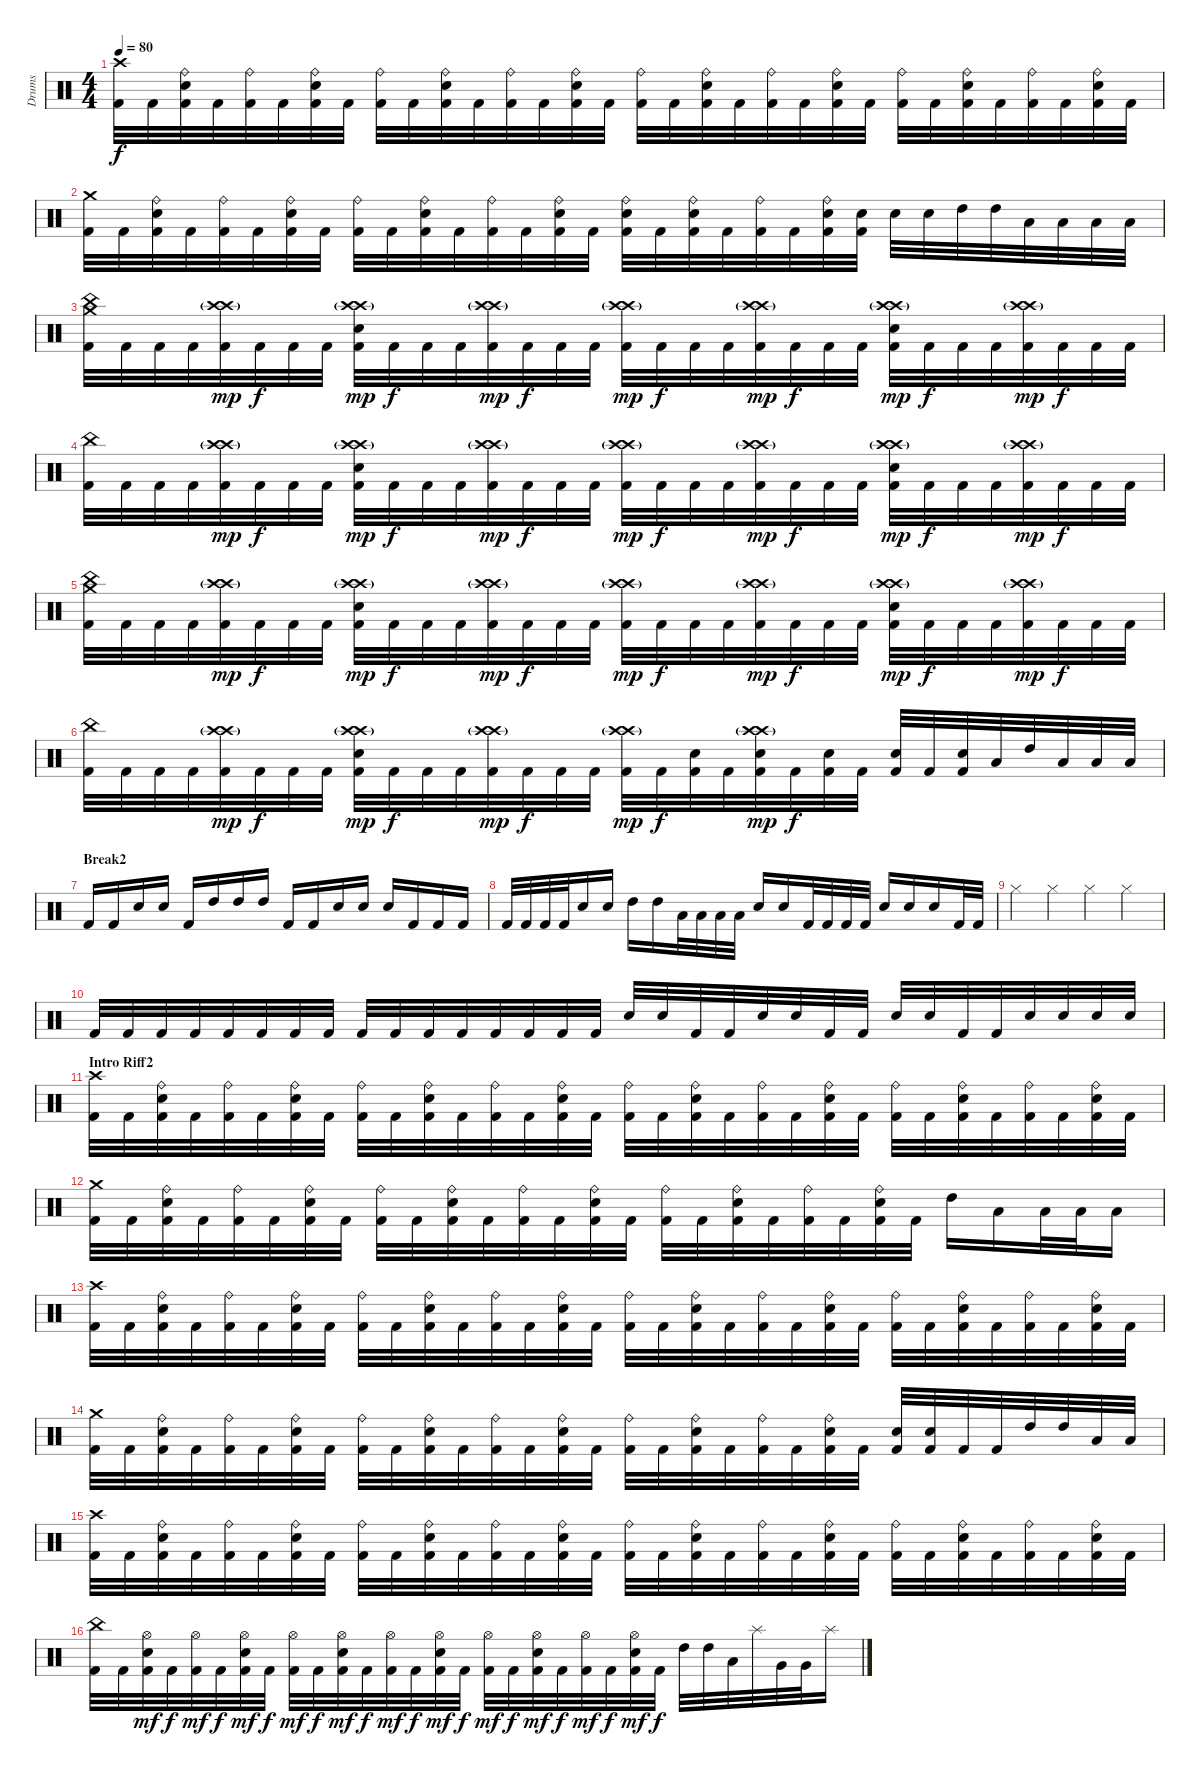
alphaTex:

\track ("Drums" "Drums") {instrument percussion}
\staff {score}
\articulation defaults
\ts (4 4)
\tempo 80
\clef neutral
\ks c
("Crash high (hit)" "Kick (hit) 2").32{dy f} "Kick (hit) 2".32 ("Ride (bell)" "Electric Snare (hit)" "Kick (hit) 2").32 "Kick (hit) 2".32 ("Ride (bell)" "Kick (hit) 2").32 "Kick (hit) 2".32 ("Ride (bell)" "Electric Snare (hit)" "Kick (hit) 2").32 "Kick (hit) 2".32 ("Ride (bell)" "Kick (hit) 2").32 "Kick (hit) 2".32 ("Ride (bell)" "Electric Snare (hit)" "Kick (hit) 2").32 "Kick (hit) 2".32 ("Ride (bell)" "Kick (hit) 2").32 "Kick (hit) 2".32 ("Ride (bell)" "Electric Snare (hit)" "Kick (hit) 2").32 "Kick (hit) 2".32 ("Ride (bell)" "Kick (hit) 2").32 "Kick (hit) 2".32 ("Ride (bell)" "Electric Snare (hit)" "Kick (hit) 2").32 "Kick (hit) 2".32 ("Ride (bell)" "Kick (hit) 2").32 "Kick (hit) 2".32 ("Ride (bell)" "Electric Snare (hit)" "Kick (hit) 2").32 "Kick (hit) 2".32 ("Ride (bell)" "Kick (hit) 2").32 "Kick (hit) 2".32 ("Ride (bell)" "Electric Snare (hit)" "Kick (hit) 2").32 "Kick (hit) 2".32 ("Ride (bell)" "Kick (hit) 2").32 "Kick (hit) 2".32 ("Ride (bell)" "Electric Snare (hit)" "Kick (hit) 2").32 "Kick (hit) 2".32 |
("Crash medium (hit)" "Kick (hit) 2").32 "Kick (hit) 2".32 ("Ride (bell)" "Electric Snare (hit)" "Kick (hit) 2").32 "Kick (hit) 2".32 ("Ride (bell)" "Kick (hit) 2").32 "Kick (hit) 2".32 ("Ride (bell)" "Electric Snare (hit)" "Kick (hit) 2").32 "Kick (hit) 2".32 ("Ride (bell)" "Kick (hit) 2").32 "Kick (hit) 2".32 ("Ride (bell)" "Electric Snare (hit)" "Kick (hit) 2").32 "Kick (hit) 2".32 ("Ride (bell)" "Kick (hit) 2").32 "Kick (hit) 2".32 ("Ride (bell)" "Electric Snare (hit)" "Kick (hit) 2").32 "Kick (hit) 2".32 ("Ride (bell)" "Electric Snare (hit)" "Kick (hit) 2").32 "Kick (hit) 2".32 ("Ride (bell)" "Electric Snare (hit)" "Kick (hit) 2").32 "Kick (hit) 2".32 ("Ride (bell)" "Kick (hit) 2").32 "Kick (hit) 2".32 ("Ride (bell)" "Electric Snare (hit)" "Kick (hit) 2").32 ("Electric Snare (hit)" "Kick (hit) 2").32 "Electric Snare (hit)".32 "Electric Snare (hit)".32 "High Tom (hit)".32 "High Tom (hit)".32 "Low Floor Tom (hit)".32 "Low Floor Tom (hit)".32 "Low Floor Tom (hit)".32 "Low Floor Tom (hit)".32 |
("China (hit)" "Crash medium (hit)" "Kick (hit) 2").32 "Kick (hit) 2".32 "Kick (hit) 2".32 "Kick (hit) 2".32 ("Crash high (hit)"{g} "Crash high (hit)"{g} "Kick (hit) 2").32{dy mp} "Kick (hit) 2".32{dy f} "Kick (hit) 2".32 "Kick (hit) 2".32 ("Crash high (hit)"{g} "Crash high (hit)"{g} "Electric Snare (hit)" "Kick (hit) 2").32{dy mp} "Kick (hit) 2".32{dy f} "Kick (hit) 2".32 "Kick (hit) 2".32 ("Crash high (hit)"{g} "Crash high (hit)"{g} "Kick (hit) 2").32{dy mp} "Kick (hit) 2".32{dy f} "Kick (hit) 2".32 "Kick (hit) 2".32 ("Crash high (hit)"{g} "Crash high (hit)"{g} "Kick (hit) 2").32{dy mp} "Kick (hit) 2".32{dy f} "Kick (hit) 2".32 "Kick (hit) 2".32 ("Crash high (hit)"{g} "Crash high (hit)"{g} "Kick (hit) 2").32{dy mp} "Kick (hit) 2".32{dy f} "Kick (hit) 2".32 "Kick (hit) 2".32 ("Crash high (hit)"{g} "Crash high (hit)"{g} "Electric Snare (hit)" "Kick (hit) 2").32{dy mp} "Kick (hit) 2".32{dy f} "Kick (hit) 2".32 "Kick (hit) 2".32 ("Crash high (hit)"{g} "Crash high (hit)"{g} "Kick (hit) 2").32{dy mp} "Kick (hit) 2".32{dy f} "Kick (hit) 2".32 "Kick (hit) 2".32 |
("China (hit)" "Kick (hit) 2").32 "Kick (hit) 2".32 "Kick (hit) 2".32 "Kick (hit) 2".32 ("Crash high (hit)"{g} "Crash high (hit)"{g} "Kick (hit) 2").32{dy mp} "Kick (hit) 2".32{dy f} "Kick (hit) 2".32 "Kick (hit) 2".32 ("Crash high (hit)"{g} "Crash high (hit)"{g} "Electric Snare (hit)" "Kick (hit) 2").32{dy mp} "Kick (hit) 2".32{dy f} "Kick (hit) 2".32 "Kick (hit) 2".32 ("Crash high (hit)"{g} "Crash high (hit)"{g} "Kick (hit) 2").32{dy mp} "Kick (hit) 2".32{dy f} "Kick (hit) 2".32 "Kick (hit) 2".32 ("Crash high (hit)"{g} "Crash high (hit)"{g} "Kick (hit) 2").32{dy mp} "Kick (hit) 2".32{dy f} "Kick (hit) 2".32 "Kick (hit) 2".32 ("Crash high (hit)"{g} "Crash high (hit)"{g} "Kick (hit) 2").32{dy mp} "Kick (hit) 2".32{dy f} "Kick (hit) 2".32 "Kick (hit) 2".32 ("Crash high (hit)"{g} "Crash high (hit)"{g} "Electric Snare (hit)" "Kick (hit) 2").32{dy mp} "Kick (hit) 2".32{dy f} "Kick (hit) 2".32 "Kick (hit) 2".32 ("Crash high (hit)"{g} "Crash high (hit)"{g} "Kick (hit) 2").32{dy mp} "Kick (hit) 2".32{dy f} "Kick (hit) 2".32 "Kick (hit) 2".32 |
("China (hit)" "Crash medium (hit)" "Kick (hit) 2").32 "Kick (hit) 2".32 "Kick (hit) 2".32 "Kick (hit) 2".32 ("Crash high (hit)"{g} "Crash high (hit)"{g} "Kick (hit) 2").32{dy mp} "Kick (hit) 2".32{dy f} "Kick (hit) 2".32 "Kick (hit) 2".32 ("Crash high (hit)"{g} "Crash high (hit)"{g} "Electric Snare (hit)" "Kick (hit) 2").32{dy mp} "Kick (hit) 2".32{dy f} "Kick (hit) 2".32 "Kick (hit) 2".32 ("Crash high (hit)"{g} "Crash high (hit)"{g} "Kick (hit) 2").32{dy mp} "Kick (hit) 2".32{dy f} "Kick (hit) 2".32 "Kick (hit) 2".32 ("Crash high (hit)"{g} "Crash high (hit)"{g} "Kick (hit) 2").32{dy mp} "Kick (hit) 2".32{dy f} "Kick (hit) 2".32 "Kick (hit) 2".32 ("Crash high (hit)"{g} "Crash high (hit)"{g} "Kick (hit) 2").32{dy mp} "Kick (hit) 2".32{dy f} "Kick (hit) 2".32 "Kick (hit) 2".32 ("Crash high (hit)"{g} "Crash high (hit)"{g} "Electric Snare (hit)" "Kick (hit) 2").32{dy mp} "Kick (hit) 2".32{dy f} "Kick (hit) 2".32 "Kick (hit) 2".32 ("Crash high (hit)"{g} "Crash high (hit)"{g} "Kick (hit) 2").32{dy mp} "Kick (hit) 2".32{dy f} "Kick (hit) 2".32 "Kick (hit) 2".32 |
("China (hit)" "Kick (hit) 2").32 "Kick (hit) 2".32 "Kick (hit) 2".32 "Kick (hit) 2".32 ("Crash high (hit)"{g} "Crash high (hit)"{g} "Kick (hit) 2").32{dy mp} "Kick (hit) 2".32{dy f} "Kick (hit) 2".32 "Kick (hit) 2".32 ("Crash high (hit)"{g} "Crash high (hit)"{g} "Electric Snare (hit)" "Kick (hit) 2").32{dy mp} "Kick (hit) 2".32{dy f} "Kick (hit) 2".32 "Kick (hit) 2".32 ("Crash high (hit)"{g} "Crash high (hit)"{g} "Kick (hit) 2").32{dy mp} "Kick (hit) 2".32{dy f} "Kick (hit) 2".32 "Kick (hit) 2".32 ("Crash high (hit)"{g} "Crash high (hit)"{g} "Kick (hit) 2").32{dy mp} "Kick (hit) 2".32{dy f} ("Electric Snare (hit)" "Kick (hit) 2").32 "Kick (hit) 2".32 ("Crash high (hit)"{g} "Crash high (hit)"{g} "Electric Snare (hit)" "Kick (hit) 2").32{dy mp} "Kick (hit) 2".32{dy f} ("Electric Snare (hit)" "Kick (hit) 2").32 "Kick (hit) 2".32 ("Electric Snare (hit)" "Kick (hit) 2").32 "Kick (hit) 2".32 ("Electric Snare (hit)" "Kick (hit) 2").32 "Low Tom (hit)".32 "High Tom (hit)".32 "Low Floor Tom (hit)".32 "Low Floor Tom (hit)".32 "Low Floor Tom (hit)".32 |
\section ("" "Break2")
"Kick (hit) 2".16 "Kick (hit) 2".16 "Electric Snare (hit)".16 "Electric Snare (hit)".16 "Kick (hit) 2".16 "High Tom (hit)".16 "High Tom (hit)".16 "High Tom (hit)".16 "Kick (hit) 2".16 "Kick (hit) 2".16 "Electric Snare (hit)".16 "Electric Snare (hit)".16 "Electric Snare (hit)".16 "Kick (hit) 2".16 "Kick (hit) 2".16 "Kick (hit) 2".16 |
"Kick (hit) 2".32 "Kick (hit) 2".32 "Kick (hit) 2".32 "Kick (hit) 2".32 "Electric Snare (hit)".16 "Electric Snare (hit)".16 "High Tom (hit)".16 "High Tom (hit)".16 "Low Tom (hit)".32 "Low Tom (hit)".32 "Low Tom (hit)".32 "Low Tom (hit)".32 "Electric Snare (hit)".16 "Electric Snare (hit)".16 "Kick (hit) 2".32 "Kick (hit) 2".32 "Kick (hit) 2".32 "Kick (hit) 2".32 "Electric Snare (hit)".16 "Electric Snare (hit)".16 "Electric Snare (hit)".16 "Kick (hit) 2".32 "Kick (hit) 2".32 |
"Hi-Hat (closed)".4 "Hi-Hat (closed)".4 "Hi-Hat (closed)".4 "Hi-Hat (closed)".4 |
"Kick (hit) 2".32 "Kick (hit) 2".32 "Kick (hit) 2".32 "Kick (hit) 2".32 "Kick (hit) 2".32 "Kick (hit) 2".32 "Kick (hit) 2".32 "Kick (hit) 2".32 "Kick (hit) 2".32 "Kick (hit) 2".32 "Kick (hit) 2".32 "Kick (hit) 2".32 "Kick (hit) 2".32 "Kick (hit) 2".32 "Kick (hit) 2".32 "Kick (hit) 2".32 "Electric Snare (hit)".32 "Electric Snare (hit)".32 "Kick (hit) 2".32 "Kick (hit) 2".32 "Electric Snare (hit)".32 "Electric Snare (hit)".32 "Kick (hit) 2".32 "Kick (hit) 2".32 "Electric Snare (hit)".32 "Electric Snare (hit)".32 "Kick (hit) 2".32 "Kick (hit) 2".32 "Electric Snare (hit)".32 "Electric Snare (hit)".32 "Electric Snare (hit)".32 "Electric Snare (hit)".32 |
\section ("" "Intro Riff2")
("Crash high (hit)" "Kick (hit) 2").32 "Kick (hit) 2".32 ("Ride (bell)" "Electric Snare (hit)" "Kick (hit) 2").32 "Kick (hit) 2".32 ("Ride (bell)" "Kick (hit) 2").32 "Kick (hit) 2".32 ("Ride (bell)" "Electric Snare (hit)" "Kick (hit) 2").32 "Kick (hit) 2".32 ("Ride (bell)" "Kick (hit) 2").32 "Kick (hit) 2".32 ("Ride (bell)" "Electric Snare (hit)" "Kick (hit) 2").32 "Kick (hit) 2".32 ("Ride (bell)" "Kick (hit) 2").32 "Kick (hit) 2".32 ("Ride (bell)" "Electric Snare (hit)" "Kick (hit) 2").32 "Kick (hit) 2".32 ("Ride (bell)" "Kick (hit) 2").32 "Kick (hit) 2".32 ("Ride (bell)" "Electric Snare (hit)" "Kick (hit) 2").32 "Kick (hit) 2".32 ("Ride (bell)" "Kick (hit) 2").32 "Kick (hit) 2".32 ("Ride (bell)" "Electric Snare (hit)" "Kick (hit) 2").32 "Kick (hit) 2".32 ("Ride (bell)" "Kick (hit) 2").32 "Kick (hit) 2".32 ("Ride (bell)" "Electric Snare (hit)" "Kick (hit) 2").32 "Kick (hit) 2".32 ("Ride (bell)" "Kick (hit) 2").32 "Kick (hit) 2".32 ("Ride (bell)" "Electric Snare (hit)" "Kick (hit) 2").32 "Kick (hit) 2".32 |
("Crash medium (hit)" "Kick (hit) 2").32 "Kick (hit) 2".32 ("Ride (bell)" "Electric Snare (hit)" "Kick (hit) 2").32 "Kick (hit) 2".32 ("Ride (bell)" "Kick (hit) 2").32 "Kick (hit) 2".32 ("Ride (bell)" "Electric Snare (hit)" "Kick (hit) 2").32 "Kick (hit) 2".32 ("Ride (bell)" "Kick (hit) 2").32 "Kick (hit) 2".32 ("Ride (bell)" "Electric Snare (hit)" "Kick (hit) 2").32 "Kick (hit) 2".32 ("Ride (bell)" "Kick (hit) 2").32 "Kick (hit) 2".32 ("Ride (bell)" "Electric Snare (hit)" "Kick (hit) 2").32 "Kick (hit) 2".32 ("Ride (bell)" "Kick (hit) 2").32 "Kick (hit) 2".32 ("Ride (bell)" "Electric Snare (hit)" "Kick (hit) 2").32 "Kick (hit) 2".32 ("Ride (bell)" "Kick (hit) 2").32 "Kick (hit) 2".32 ("Ride (bell)" "Electric Snare (hit)" "Kick (hit) 2").32 "Kick (hit) 2".32 "High Tom (hit)".16 "Low Tom (hit)".16 "Low Tom (hit)".32 "Low Tom (hit)".32 "Low Floor Tom (hit)".16 |
("Crash high (hit)" "Kick (hit) 2").32 "Kick (hit) 2".32 ("Ride (bell)" "Electric Snare (hit)" "Kick (hit) 2").32 "Kick (hit) 2".32 ("Ride (bell)" "Kick (hit) 2").32 "Kick (hit) 2".32 ("Ride (bell)" "Electric Snare (hit)" "Kick (hit) 2").32 "Kick (hit) 2".32 ("Ride (bell)" "Kick (hit) 2").32 "Kick (hit) 2".32 ("Ride (bell)" "Electric Snare (hit)" "Kick (hit) 2").32 "Kick (hit) 2".32 ("Ride (bell)" "Kick (hit) 2").32 "Kick (hit) 2".32 ("Ride (bell)" "Electric Snare (hit)" "Kick (hit) 2").32 "Kick (hit) 2".32 ("Ride (bell)" "Kick (hit) 2").32 "Kick (hit) 2".32 ("Ride (bell)" "Electric Snare (hit)" "Kick (hit) 2").32 "Kick (hit) 2".32 ("Ride (bell)" "Kick (hit) 2").32 "Kick (hit) 2".32 ("Ride (bell)" "Electric Snare (hit)" "Kick (hit) 2").32 "Kick (hit) 2".32 ("Ride (bell)" "Kick (hit) 2").32 "Kick (hit) 2".32 ("Ride (bell)" "Electric Snare (hit)" "Kick (hit) 2").32 "Kick (hit) 2".32 ("Ride (bell)" "Kick (hit) 2").32 "Kick (hit) 2".32 ("Ride (bell)" "Electric Snare (hit)" "Kick (hit) 2").32 "Kick (hit) 2".32 |
("Crash medium (hit)" "Kick (hit) 2").32 "Kick (hit) 2".32 ("Ride (bell)" "Electric Snare (hit)" "Kick (hit) 2").32 "Kick (hit) 2".32 ("Ride (bell)" "Kick (hit) 2").32 "Kick (hit) 2".32 ("Ride (bell)" "Electric Snare (hit)" "Kick (hit) 2").32 "Kick (hit) 2".32 ("Ride (bell)" "Kick (hit) 2").32 "Kick (hit) 2".32 ("Ride (bell)" "Electric Snare (hit)" "Kick (hit) 2").32 "Kick (hit) 2".32 ("Ride (bell)" "Kick (hit) 2").32 "Kick (hit) 2".32 ("Ride (bell)" "Electric Snare (hit)" "Kick (hit) 2").32 "Kick (hit) 2".32 ("Ride (bell)" "Kick (hit) 2").32 "Kick (hit) 2".32 ("Ride (bell)" "Electric Snare (hit)" "Kick (hit) 2").32 "Kick (hit) 2".32 ("Ride (bell)" "Kick (hit) 2").32 "Kick (hit) 2".32 ("Ride (bell)" "Electric Snare (hit)" "Kick (hit) 2").32 "Kick (hit) 2".32 ("Electric Snare (hit)" "Kick (hit) 2").32 ("Electric Snare (hit)" "Kick (hit) 2").32 "Kick (hit) 2".32 "Kick (hit) 2".32 "High Tom (hit)".32 "High Tom (hit)".32 "Low Tom (hit)".32 "Low Tom (hit)".32 |
("Crash high (hit)" "Kick (hit) 2").32 "Kick (hit) 2".32 ("Ride (bell)" "Electric Snare (hit)" "Kick (hit) 2").32 "Kick (hit) 2".32 ("Ride (bell)" "Kick (hit) 2").32 "Kick (hit) 2".32 ("Ride (bell)" "Electric Snare (hit)" "Kick (hit) 2").32 "Kick (hit) 2".32 ("Ride (bell)" "Kick (hit) 2").32 "Kick (hit) 2".32 ("Ride (bell)" "Electric Snare (hit)" "Kick (hit) 2").32 "Kick (hit) 2".32 ("Ride (bell)" "Kick (hit) 2").32 "Kick (hit) 2".32 ("Ride (bell)" "Electric Snare (hit)" "Kick (hit) 2").32 "Kick (hit) 2".32 ("Ride (bell)" "Kick (hit) 2").32 "Kick (hit) 2".32 ("Ride (bell)" "Electric Snare (hit)" "Kick (hit) 2").32 "Kick (hit) 2".32 ("Ride (bell)" "Kick (hit) 2").32 "Kick (hit) 2".32 ("Ride (bell)" "Electric Snare (hit)" "Kick (hit) 2").32 "Kick (hit) 2".32 ("Ride (bell)" "Kick (hit) 2").32 "Kick (hit) 2".32 ("Ride (bell)" "Electric Snare (hit)" "Kick (hit) 2").32 "Kick (hit) 2".32 ("Ride (bell)" "Kick (hit) 2").32 "Kick (hit) 2".32 ("Ride (bell)" "Electric Snare (hit)" "Kick (hit) 2").32 "Kick (hit) 2".32 |
("China (hit)" "Kick (hit) 2").32 "Kick (hit) 2".32 ("Hi-Hat (open)" "Electric Snare (hit)" "Kick (hit) 2").32{dy mf} "Kick (hit) 2".32{dy f} ("Hi-Hat (open)" "Kick (hit) 2").32{dy mf} "Kick (hit) 2".32{dy f} ("Hi-Hat (open)" "Electric Snare (hit)" "Kick (hit) 2").32{dy mf} "Kick (hit) 2".32{dy f} ("Hi-Hat (open)" "Kick (hit) 2").32{dy mf} "Kick (hit) 2".32{dy f} ("Hi-Hat (open)" "Electric Snare (hit)" "Kick (hit) 2").32{dy mf} "Kick (hit) 2".32{dy f} ("Hi-Hat (open)" "Kick (hit) 2").32{dy mf} "Kick (hit) 2".32{dy f} ("Hi-Hat (open)" "Electric Snare (hit)" "Kick (hit) 2").32{dy mf} "Kick (hit) 2".32{dy f} ("Hi-Hat (open)" "Kick (hit) 2").32{dy mf} "Kick (hit) 2".32{dy f} ("Hi-Hat (open)" "Electric Snare (hit)" "Kick (hit) 2").32{dy mf} "Kick (hit) 2".32{dy f} ("Hi-Hat (open)" "Kick (hit) 2").32{dy mf} "Kick (hit) 2".32{dy f} ("Hi-Hat (open)" "Electric Snare (hit)" "Kick (hit) 2").32{dy mf} "Kick (hit) 2".32{dy f} "High Tom (hit)".32 "High Tom (hit)".32 "Low Tom (hit)".32 "Splash (hit)".32 "Very Low Tom (hit)".32 "Very Low Tom (hit)".32 "Splash (hit)".16
